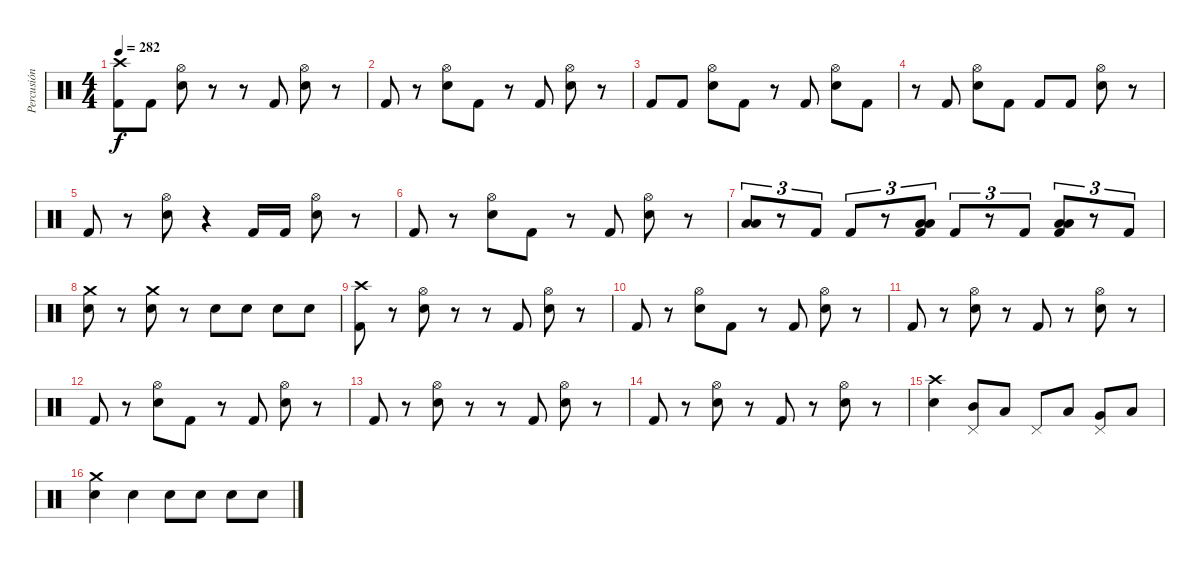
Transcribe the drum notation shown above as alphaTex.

\track ("Percusión" "Percusión") {instrument percussion}
\staff {score}
\articulation defaults
\ts (4 4)
\tempo 282
\clef neutral
\ks c
("Kick (hit) 2" "Crash high (hit)").8{dy f} "Kick (hit) 2".8 ("Snare (hit) 2" "Hi-Hat (open)").8 r.8 r.8 "Kick (hit) 2".8 ("Snare (hit) 2" "Hi-Hat (open)").8 r.8 |
"Kick (hit) 2".8 r.8 ("Snare (hit) 2" "Hi-Hat (open)").8 "Kick (hit) 2".8 r.8 "Kick (hit) 2".8 ("Snare (hit) 2" "Hi-Hat (open)").8 r.8 |
"Kick (hit) 2".8 "Kick (hit) 2".8 ("Snare (hit) 2" "Hi-Hat (open)").8 "Kick (hit) 2".8 r.8 "Kick (hit) 2".8 ("Snare (hit) 2" "Hi-Hat (open)").8 "Kick (hit) 2".8 |
r.8 "Kick (hit) 2".8 ("Snare (hit) 2" "Hi-Hat (open)").8 "Kick (hit) 2".8 "Kick (hit) 2".8 "Kick (hit) 2".8 ("Snare (hit) 2" "Hi-Hat (open)").8 r.8 |
"Kick (hit) 2".8 r.8 ("Snare (hit) 2" "Hi-Hat (open)").8 r.4 "Kick (hit) 2".16 "Kick (hit) 2".16 ("Snare (hit) 2" "Hi-Hat (open)").8 r.8 |
"Kick (hit) 2".8 r.8 ("Snare (hit) 2" "Hi-Hat (open)").8 "Kick (hit) 2".8 r.8 "Kick (hit) 2".8 ("Snare (hit) 2" "Hi-Hat (open)").8 r.8 |
("Low Tom (hit)" "Low Floor Tom (hit)").8{tu (3 2)} r.8{tu (3 2)} "Kick (hit) 2".8{tu (3 2)} "Kick (hit) 2".8{tu (3 2)} r.8{tu (3 2)} ("Kick (hit) 2" "Low Tom (hit)" "Low Floor Tom (hit)").8{tu (3 2)} "Kick (hit) 2".8{tu (3 2)} r.8{tu (3 2)} "Kick (hit) 2".8{tu (3 2)} ("Kick (hit) 2" "Low Tom (hit)" "Low Floor Tom (hit)").8{tu (3 2)} r.8{tu (3 2)} "Kick (hit) 2".8{tu (3 2)} |
("Snare (hit) 2" "Crash medium (hit)").8 r.8 ("Snare (hit) 2" "Crash medium (hit)").8 r.8 "Snare (hit) 2".8 "Snare (hit) 2".8 "Snare (hit) 2".8 "Snare (hit) 2".8 |
("Kick (hit) 2" "Crash high (hit)").8 r.8 ("Snare (hit) 2" "Hi-Hat (open)").8 r.8 r.8 "Kick (hit) 2".8 ("Snare (hit) 2" "Hi-Hat (open)").8 r.8 |
"Kick (hit) 2".8 r.8 ("Snare (hit) 2" "Hi-Hat (open)").8 "Kick (hit) 2".8 r.8 "Kick (hit) 2".8 ("Snare (hit) 2" "Hi-Hat (open)").8 r.8 |
"Kick (hit) 2".8 r.8 ("Snare (hit) 2" "Hi-Hat (open)").8 r.8 "Kick (hit) 2".8 r.8 ("Snare (hit) 2" "Hi-Hat (open)").8 r.8 |
"Kick (hit) 2".8 r.8 ("Snare (hit) 2" "Hi-Hat (open)").8 "Kick (hit) 2".8 r.8 "Kick (hit) 2".8 ("Snare (hit) 2" "Hi-Hat (open)").8 r.8 |
"Kick (hit) 2".8 r.8 ("Snare (hit) 2" "Hi-Hat (open)").8 r.8 r.8 "Kick (hit) 2".8 ("Snare (hit) 2" "Hi-Hat (open)").8 r.8 |
"Kick (hit) 2".8 r.8 ("Snare (hit) 2" "Hi-Hat (open)").8 r.8 "Kick (hit) 2".8 r.8 ("Snare (hit) 2" "Hi-Hat (open)").8 r.8 |
("Snare (hit) 2" "Crash high (hit)").4 ("Mid Tom (hit)" "Pedal Hi-Hat (hit)").8 "Low Tom (hit)".8 "Pedal Hi-Hat (hit)".8 "Low Tom (hit)".8 ("Very Low Tom (hit)" "Pedal Hi-Hat (hit)").8 "Low Floor Tom (hit)".8 |
("Snare (hit) 2" "Crash medium (hit)").4 "Snare (hit) 2".4 "Snare (hit) 2".8 "Snare (hit) 2".8 "Snare (hit) 2".8 "Snare (hit) 2".8
